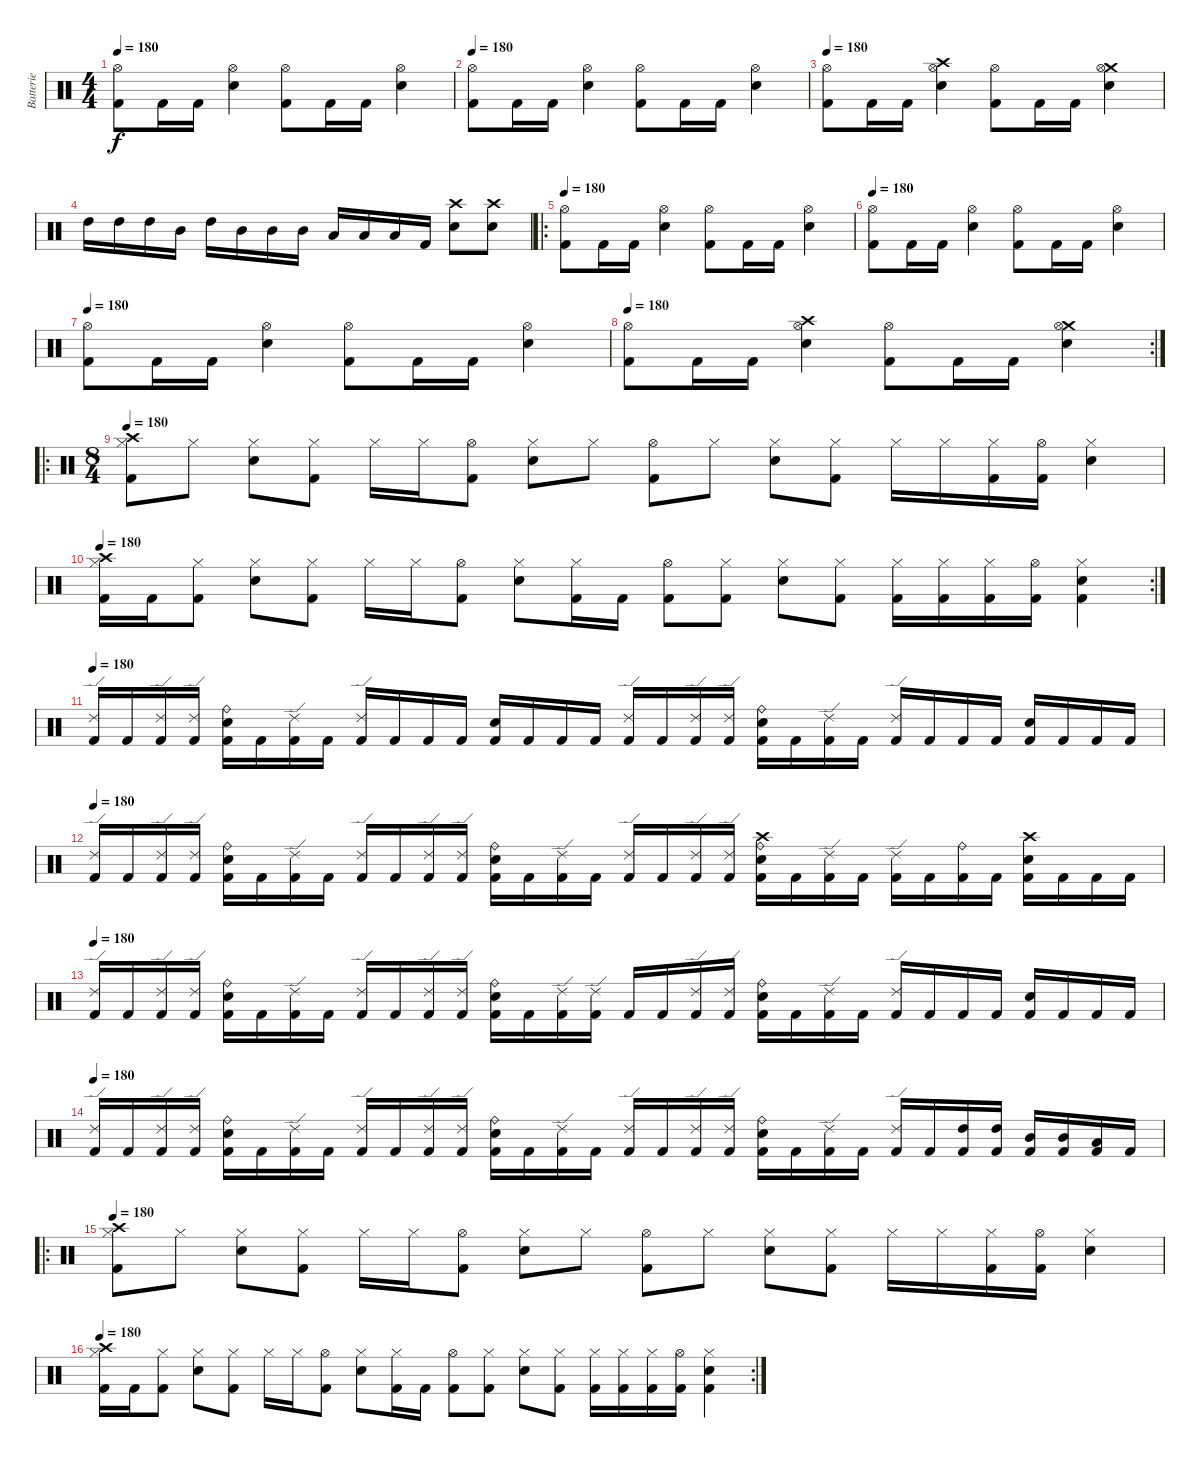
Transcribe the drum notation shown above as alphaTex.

\track ("Batterie" "Batterie") {instrument percussion}
\staff {score}
\articulation defaults
\ts (4 4)
\tempo 180
\clef neutral
\ks c
("Hi-Hat (open)" "Kick (hit) 2").8{dy f} "Kick (hit) 2".16 "Kick (hit) 2".16 ("Hi-Hat (open)" "Electric Snare (hit)").4 ("Hi-Hat (open)" "Kick (hit) 2").8 "Kick (hit) 2".16 "Kick (hit) 2".16 ("Hi-Hat (open)" "Electric Snare (hit)").4 |
\tempo 180
("Hi-Hat (open)" "Kick (hit) 2").8 "Kick (hit) 2".16 "Kick (hit) 2".16 ("Hi-Hat (open)" "Electric Snare (hit)").4 ("Hi-Hat (open)" "Kick (hit) 2").8 "Kick (hit) 2".16 "Kick (hit) 2".16 ("Hi-Hat (open)" "Electric Snare (hit)").4 |
\tempo 180
("Hi-Hat (open)" "Kick (hit) 2").8 "Kick (hit) 2".16 "Kick (hit) 2".16 ("Crash high (hit)" "Hi-Hat (open)" "Electric Snare (hit)").4 ("Hi-Hat (open)" "Kick (hit) 2").8 "Kick (hit) 2".16 "Kick (hit) 2".16 ("Crash medium (hit)" "Hi-Hat (open)" "Electric Snare (hit)").4 |
"High Tom (hit)".16 "High Tom (hit)".16 "High Tom (hit)".16 "Mid Tom (hit)".16 "High Tom (hit)".16 "Mid Tom (hit)".16 "Mid Tom (hit)".16 "Mid Tom (hit)".16 "Low Tom (hit)".16 "Low Tom (hit)".16 "Low Tom (hit)".16 "Kick (hit) 2".16 ("Crash high (hit)" "Electric Snare (hit)").8 ("Crash high (hit)" "Electric Snare (hit)").8 |
\ro
\tempo 180
("Hi-Hat (open)" "Kick (hit) 2").8 "Kick (hit) 2".16 "Kick (hit) 2".16 ("Hi-Hat (open)" "Electric Snare (hit)").4 ("Hi-Hat (open)" "Kick (hit) 2").8 "Kick (hit) 2".16 "Kick (hit) 2".16 ("Hi-Hat (open)" "Electric Snare (hit)").4 |
\tempo 180
("Hi-Hat (open)" "Kick (hit) 2").8 "Kick (hit) 2".16 "Kick (hit) 2".16 ("Hi-Hat (open)" "Electric Snare (hit)").4 ("Hi-Hat (open)" "Kick (hit) 2").8 "Kick (hit) 2".16 "Kick (hit) 2".16 ("Hi-Hat (open)" "Electric Snare (hit)").4 |
\tempo 180
("Hi-Hat (open)" "Kick (hit) 2").8 "Kick (hit) 2".16 "Kick (hit) 2".16 ("Hi-Hat (open)" "Electric Snare (hit)").4 ("Hi-Hat (open)" "Kick (hit) 2").8 "Kick (hit) 2".16 "Kick (hit) 2".16 ("Hi-Hat (open)" "Electric Snare (hit)").4 |
\rc 2
\tempo 180
("Hi-Hat (open)" "Kick (hit) 2").8 "Kick (hit) 2".16 "Kick (hit) 2".16 ("Crash high (hit)" "Hi-Hat (open)" "Electric Snare (hit)").4 ("Hi-Hat (open)" "Kick (hit) 2").8 "Kick (hit) 2".16 "Kick (hit) 2".16 ("Crash medium (hit)" "Hi-Hat (open)" "Electric Snare (hit)").4 |
\ro
\ts (8 4)
\tempo 180
("Crash high (hit)" "Hi-Hat (closed)" "Kick (hit) 2").8 "Hi-Hat (closed)".8 ("Hi-Hat (closed)" "Electric Snare (hit)").8 ("Hi-Hat (closed)" "Kick (hit) 2").8 "Hi-Hat (closed)".16 "Hi-Hat (closed)".16 ("Hi-Hat (open)" "Kick (hit) 2").8 ("Hi-Hat (closed)" "Electric Snare (hit)").8 "Hi-Hat (closed)".8 ("Hi-Hat (open)" "Kick (hit) 2").8 "Hi-Hat (closed)".8 ("Hi-Hat (closed)" "Electric Snare (hit)").8 ("Hi-Hat (closed)" "Kick (hit) 2").8 "Hi-Hat (closed)".16 "Hi-Hat (closed)".16 ("Hi-Hat (closed)" "Kick (hit) 2").16 ("Hi-Hat (open)" "Kick (hit) 2").16 ("Hi-Hat (closed)" "Electric Snare (hit)").4 |
\rc 2
\tempo 180
("Crash high (hit)" "Hi-Hat (closed)" "Kick (hit) 2").16 "Kick (hit) 2".16 ("Hi-Hat (closed)" "Kick (hit) 2").8 ("Hi-Hat (closed)" "Electric Snare (hit)").8 ("Hi-Hat (closed)" "Kick (hit) 2").8 "Hi-Hat (closed)".16 "Hi-Hat (closed)".16 ("Hi-Hat (open)" "Kick (hit) 2").8 ("Hi-Hat (closed)" "Electric Snare (hit)").8 ("Hi-Hat (closed)" "Kick (hit) 2").16 "Kick (hit) 2".16 ("Hi-Hat (open)" "Kick (hit) 2").8 ("Hi-Hat (closed)" "Kick (hit) 2").8 ("Hi-Hat (closed)" "Electric Snare (hit)").8 ("Hi-Hat (closed)" "Kick (hit) 2").8 ("Hi-Hat (closed)" "Kick (hit) 2").16 ("Hi-Hat (closed)" "Kick (hit) 2").16 ("Hi-Hat (closed)" "Kick (hit) 2").16 ("Hi-Hat (open)" "Kick (hit) 2").16 ("Hi-Hat (closed)" "Electric Snare (hit)" "Kick (hit) 2").4 |
\tempo 180
("Ride (edge) 2" "Kick (hit) 2").16 "Kick (hit) 2".16 ("Ride (edge) 2" "Kick (hit) 2").16 ("Ride (edge) 2" "Kick (hit) 2").16 ("Ride (bell)" "Electric Snare (hit)" "Kick (hit) 2").16 "Kick (hit) 2".16 ("Ride (edge) 2" "Kick (hit) 2").16 "Kick (hit) 2".16 ("Ride (edge) 2" "Kick (hit) 2").16 "Kick (hit) 2".16 "Kick (hit) 2".16 "Kick (hit) 2".16 ("Electric Snare (hit)" "Kick (hit) 2").16 "Kick (hit) 2".16 "Kick (hit) 2".16 "Kick (hit) 2".16 ("Ride (edge) 2" "Kick (hit) 2").16 "Kick (hit) 2".16 ("Ride (edge) 2" "Kick (hit) 2").16 ("Ride (edge) 2" "Kick (hit) 2").16 ("Ride (bell)" "Electric Snare (hit)" "Kick (hit) 2").16 "Kick (hit) 2".16 ("Ride (edge) 2" "Kick (hit) 2").16 "Kick (hit) 2".16 ("Ride (edge) 2" "Kick (hit) 2").16 "Kick (hit) 2".16 "Kick (hit) 2".16 "Kick (hit) 2".16 ("Electric Snare (hit)" "Kick (hit) 2").16 "Kick (hit) 2".16 "Kick (hit) 2".16 "Kick (hit) 2".16 |
\tempo 180
("Ride (edge) 2" "Kick (hit) 2").16 "Kick (hit) 2".16 ("Ride (edge) 2" "Kick (hit) 2").16 ("Ride (edge) 2" "Kick (hit) 2").16 ("Ride (bell)" "Electric Snare (hit)" "Kick (hit) 2").16 "Kick (hit) 2".16 ("Ride (edge) 2" "Kick (hit) 2").16 "Kick (hit) 2".16 ("Ride (edge) 2" "Kick (hit) 2").16 "Kick (hit) 2".16 ("Ride (edge) 2" "Kick (hit) 2").16 ("Ride (edge) 2" "Kick (hit) 2").16 ("Ride (bell)" "Electric Snare (hit)" "Kick (hit) 2").16 "Kick (hit) 2".16 ("Ride (edge) 2" "Kick (hit) 2").16 "Kick (hit) 2".16 ("Ride (edge) 2" "Kick (hit) 2").16 "Kick (hit) 2".16 ("Ride (edge) 2" "Kick (hit) 2").16 ("Ride (edge) 2" "Kick (hit) 2").16 ("Crash high (hit)" "Ride (bell)" "Electric Snare (hit)" "Kick (hit) 2").16 "Kick (hit) 2".16 ("Ride (edge) 2" "Kick (hit) 2").16 "Kick (hit) 2".16 ("Ride (edge) 2" "Kick (hit) 2").16 "Kick (hit) 2".16 ("Ride (bell)" "Kick (hit) 2").16 "Kick (hit) 2".16 ("Crash high (hit)" "Electric Snare (hit)" "Kick (hit) 2").16 "Kick (hit) 2".16 "Kick (hit) 2".16 "Kick (hit) 2".16 |
\tempo 180
("Ride (edge) 2" "Kick (hit) 2").16 "Kick (hit) 2".16 ("Ride (edge) 2" "Kick (hit) 2").16 ("Ride (edge) 2" "Kick (hit) 2").16 ("Ride (bell)" "Electric Snare (hit)" "Kick (hit) 2").16 "Kick (hit) 2".16 ("Ride (edge) 2" "Kick (hit) 2").16 "Kick (hit) 2".16 ("Ride (edge) 2" "Kick (hit) 2").16 "Kick (hit) 2".16 ("Ride (edge) 2" "Kick (hit) 2").16 ("Ride (edge) 2" "Kick (hit) 2").16 ("Ride (bell)" "Electric Snare (hit)" "Kick (hit) 2").16 "Kick (hit) 2".16 ("Ride (edge) 2" "Kick (hit) 2").16 ("Ride (edge) 2" "Kick (hit) 2").16 "Kick (hit) 2".16 "Kick (hit) 2".16 ("Ride (edge) 2" "Kick (hit) 2").16 ("Ride (edge) 2" "Kick (hit) 2").16 ("Ride (bell)" "Electric Snare (hit)" "Kick (hit) 2").16 "Kick (hit) 2".16 ("Ride (edge) 2" "Kick (hit) 2").16 "Kick (hit) 2".16 ("Ride (edge) 2" "Kick (hit) 2").16 "Kick (hit) 2".16 "Kick (hit) 2".16 "Kick (hit) 2".16 ("Electric Snare (hit)" "Kick (hit) 2").16 "Kick (hit) 2".16 "Kick (hit) 2".16 "Kick (hit) 2".16 |
\tempo 180
("Ride (edge) 2" "Kick (hit) 2").16 "Kick (hit) 2".16 ("Ride (edge) 2" "Kick (hit) 2").16 ("Ride (edge) 2" "Kick (hit) 2").16 ("Ride (bell)" "Electric Snare (hit)" "Kick (hit) 2").16 "Kick (hit) 2".16 ("Ride (edge) 2" "Kick (hit) 2").16 "Kick (hit) 2".16 ("Ride (edge) 2" "Kick (hit) 2").16 "Kick (hit) 2".16 ("Ride (edge) 2" "Kick (hit) 2").16 ("Ride (edge) 2" "Kick (hit) 2").16 ("Ride (bell)" "Electric Snare (hit)" "Kick (hit) 2").16 "Kick (hit) 2".16 ("Ride (edge) 2" "Kick (hit) 2").16 "Kick (hit) 2".16 ("Ride (edge) 2" "Kick (hit) 2").16 "Kick (hit) 2".16 ("Ride (edge) 2" "Kick (hit) 2").16 ("Ride (edge) 2" "Kick (hit) 2").16 ("Ride (bell)" "Electric Snare (hit)" "Kick (hit) 2").16 "Kick (hit) 2".16 ("Ride (edge) 2" "Kick (hit) 2").16 "Kick (hit) 2".16 ("Ride (edge) 2" "Kick (hit) 2").16 "Kick (hit) 2".16 ("High Tom (hit)" "Kick (hit) 2").16 ("High Tom (hit)" "Kick (hit) 2").16 ("Mid Tom (hit)" "Kick (hit) 2").16 ("Mid Tom (hit)" "Kick (hit) 2").16 ("Low Tom (hit)" "Kick (hit) 2").16 "Kick (hit) 2".16 |
\ro
\tempo 180
("Crash high (hit)" "Hi-Hat (closed)" "Kick (hit) 2").8 "Hi-Hat (closed)".8 ("Hi-Hat (closed)" "Electric Snare (hit)").8 ("Hi-Hat (closed)" "Kick (hit) 2").8 "Hi-Hat (closed)".16 "Hi-Hat (closed)".16 ("Hi-Hat (open)" "Kick (hit) 2").8 ("Hi-Hat (closed)" "Electric Snare (hit)").8 "Hi-Hat (closed)".8 ("Hi-Hat (open)" "Kick (hit) 2").8 "Hi-Hat (closed)".8 ("Hi-Hat (closed)" "Electric Snare (hit)").8 ("Hi-Hat (closed)" "Kick (hit) 2").8 "Hi-Hat (closed)".16 "Hi-Hat (closed)".16 ("Hi-Hat (closed)" "Kick (hit) 2").16 ("Hi-Hat (open)" "Kick (hit) 2").16 ("Hi-Hat (closed)" "Electric Snare (hit)").4 |
\rc 2
\tempo 180
("Crash high (hit)" "Hi-Hat (closed)" "Kick (hit) 2").16 "Kick (hit) 2".16 ("Hi-Hat (closed)" "Kick (hit) 2").8 ("Hi-Hat (closed)" "Electric Snare (hit)").8 ("Hi-Hat (closed)" "Kick (hit) 2").8 "Hi-Hat (closed)".16 "Hi-Hat (closed)".16 ("Hi-Hat (open)" "Kick (hit) 2").8 ("Hi-Hat (closed)" "Electric Snare (hit)").8 ("Hi-Hat (closed)" "Kick (hit) 2").16 "Kick (hit) 2".16 ("Hi-Hat (open)" "Kick (hit) 2").8 ("Hi-Hat (closed)" "Kick (hit) 2").8 ("Hi-Hat (closed)" "Electric Snare (hit)").8 ("Hi-Hat (closed)" "Kick (hit) 2").8 ("Hi-Hat (closed)" "Kick (hit) 2").16 ("Hi-Hat (closed)" "Kick (hit) 2").16 ("Hi-Hat (closed)" "Kick (hit) 2").16 ("Hi-Hat (open)" "Kick (hit) 2").16 ("Hi-Hat (closed)" "Electric Snare (hit)" "Kick (hit) 2").4
